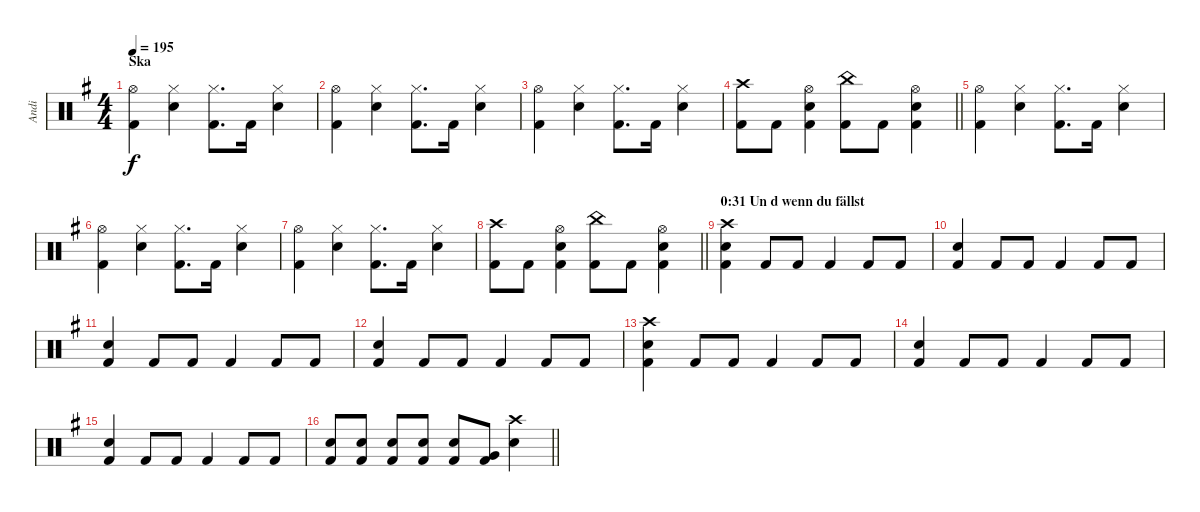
\track ("Andi" "Andi") {instrument percussion}
\staff {score}
\articulation defaults
\ts (4 4)
\section ("" "Ska")
\tempo 195
\clef neutral
\ks g
("Hi-Hat (open)" "Kick (hit) 2").4{dy f} ("Hi-Hat (closed)" "Snare (hit) 2").4 ("Hi-Hat (closed)" "Kick (hit) 2").8{d} "Kick (hit) 2".16 ("Hi-Hat (closed)" "Snare (hit) 2").4 |
("Hi-Hat (open)" "Kick (hit) 2").4 ("Hi-Hat (closed)" "Snare (hit) 2").4 ("Hi-Hat (closed)" "Kick (hit) 2").8{d} "Kick (hit) 2".16 ("Hi-Hat (closed)" "Snare (hit) 2").4 |
("Hi-Hat (open)" "Kick (hit) 2").4 ("Hi-Hat (closed)" "Snare (hit) 2").4 ("Hi-Hat (closed)" "Kick (hit) 2").8{d} "Kick (hit) 2".16 ("Hi-Hat (closed)" "Snare (hit) 2").4 |
\barLineRight lightlight
("Crash high (hit)" "Kick (hit) 2").8 "Kick (hit) 2".8 ("Hi-Hat (open)" "Kick (hit) 2" "Snare (hit) 2").4 ("China (hit)" "Kick (hit) 2").8 "Kick (hit) 2".8 ("Hi-Hat (open)" "Kick (hit) 2" "Snare (hit) 2").4 |
("Hi-Hat (open)" "Kick (hit) 2").4 ("Hi-Hat (closed)" "Snare (hit) 2").4 ("Hi-Hat (closed)" "Kick (hit) 2").8{d} "Kick (hit) 2".16 ("Hi-Hat (closed)" "Snare (hit) 2").4 |
("Hi-Hat (open)" "Kick (hit) 2").4 ("Hi-Hat (closed)" "Snare (hit) 2").4 ("Hi-Hat (closed)" "Kick (hit) 2").8{d} "Kick (hit) 2".16 ("Hi-Hat (closed)" "Snare (hit) 2").4 |
("Hi-Hat (open)" "Kick (hit) 2").4 ("Hi-Hat (closed)" "Snare (hit) 2").4 ("Hi-Hat (closed)" "Kick (hit) 2").8{d} "Kick (hit) 2".16 ("Hi-Hat (closed)" "Snare (hit) 2").4 |
\barLineRight lightlight
("Crash high (hit)" "Kick (hit) 2").8 "Kick (hit) 2".8 ("Hi-Hat (open)" "Kick (hit) 2" "Snare (hit) 2").4 ("China (hit)" "Kick (hit) 2").8 "Kick (hit) 2".8 ("Hi-Hat (open)" "Kick (hit) 2" "Snare (hit) 2").4 |
\section ("" "0:31 Un d wenn du fällst")
("Crash high (hit)" "Snare (hit) 2" "Kick (hit) 2").4 "Kick (hit) 2".8 "Kick (hit) 2".8 "Kick (hit) 2".4 "Kick (hit) 2".8 "Kick (hit) 2".8 |
("Snare (hit) 2" "Kick (hit) 2").4 "Kick (hit) 2".8 "Kick (hit) 2".8 "Kick (hit) 2".4 "Kick (hit) 2".8 "Kick (hit) 2".8 |
("Snare (hit) 2" "Kick (hit) 2").4 "Kick (hit) 2".8 "Kick (hit) 2".8 "Kick (hit) 2".4 "Kick (hit) 2".8 "Kick (hit) 2".8 |
("Snare (hit) 2" "Kick (hit) 2").4 "Kick (hit) 2".8 "Kick (hit) 2".8 "Kick (hit) 2".4 "Kick (hit) 2".8 "Kick (hit) 2".8 |
("Crash high (hit)" "Snare (hit) 2" "Kick (hit) 2").4 "Kick (hit) 2".8 "Kick (hit) 2".8 "Kick (hit) 2".4 "Kick (hit) 2".8 "Kick (hit) 2".8 |
("Snare (hit) 2" "Kick (hit) 2").4 "Kick (hit) 2".8 "Kick (hit) 2".8 "Kick (hit) 2".4 "Kick (hit) 2".8 "Kick (hit) 2".8 |
("Snare (hit) 2" "Kick (hit) 2").4 "Kick (hit) 2".8 "Kick (hit) 2".8 "Kick (hit) 2".4 "Kick (hit) 2".8 "Kick (hit) 2".8 |
\barLineRight lightlight
("Snare (hit) 2" "Kick (hit) 2").8 ("Snare (hit) 2" "Kick (hit) 2").8 ("Snare (hit) 2" "Kick (hit) 2").8 ("Snare (hit) 2" "Kick (hit) 2").8 ("Snare (hit) 2" "Kick (hit) 2").8 ("Very Low Tom (hit)" "Kick (hit) 2").8 ("Crash high (hit)" "Snare (hit) 2").4
